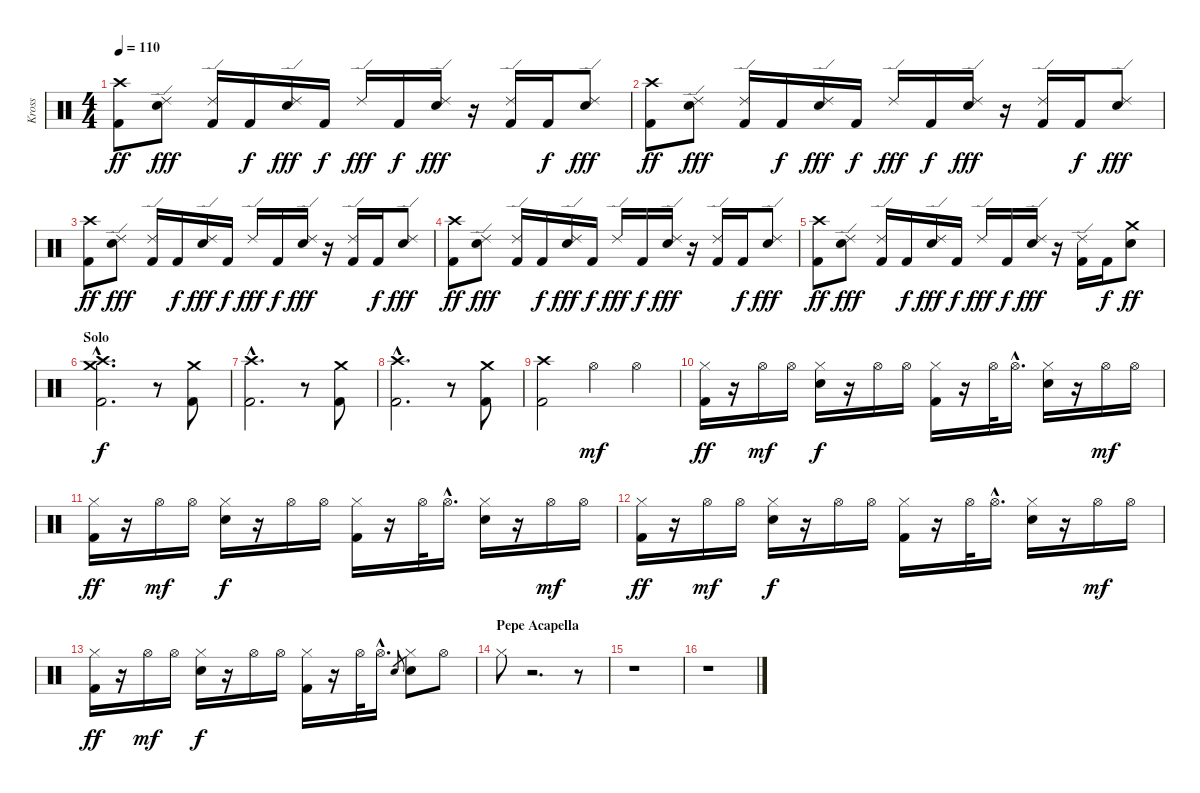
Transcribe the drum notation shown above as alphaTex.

\track ("Kross" "Kross") {instrument percussion}
\staff {score}
\articulation defaults
\ts (4 4)
\tempo 110
\clef neutral
\ks c
("Crash high (hit)" "Kick (hit) 2").8{dy ff} ("Ride (edge) 2" "Electric Snare (hit)").8{dy fff} ("Ride (edge) 2" "Kick (hit) 2").16 "Kick (hit) 2".16{dy f} ("Ride (edge) 2" "Electric Snare (hit)").16{dy fff} "Kick (hit) 2".16{dy f} "Ride (edge) 2".16{dy fff} "Kick (hit) 2".16{dy f} ("Ride (edge) 2" "Electric Snare (hit)").16{dy fff} r.16 ("Ride (edge) 2" "Kick (hit) 2").16 "Kick (hit) 2".16{dy f} ("Ride (edge) 2" "Electric Snare (hit)").8{dy fff} |
("Crash high (hit)" "Kick (hit) 2").8{dy ff} ("Ride (edge) 2" "Electric Snare (hit)").8{dy fff} ("Ride (edge) 2" "Kick (hit) 2").16 "Kick (hit) 2".16{dy f} ("Ride (edge) 2" "Electric Snare (hit)").16{dy fff} "Kick (hit) 2".16{dy f} "Ride (edge) 2".16{dy fff} "Kick (hit) 2".16{dy f} ("Ride (edge) 2" "Electric Snare (hit)").16{dy fff} r.16 ("Ride (edge) 2" "Kick (hit) 2").16 "Kick (hit) 2".16{dy f} ("Ride (edge) 2" "Electric Snare (hit)").8{dy fff} |
("Crash high (hit)" "Kick (hit) 2").8{dy ff} ("Ride (edge) 2" "Electric Snare (hit)").8{dy fff} ("Ride (edge) 2" "Kick (hit) 2").16 "Kick (hit) 2".16{dy f} ("Ride (edge) 2" "Electric Snare (hit)").16{dy fff} "Kick (hit) 2".16{dy f} "Ride (edge) 2".16{dy fff} "Kick (hit) 2".16{dy f} ("Ride (edge) 2" "Electric Snare (hit)").16{dy fff} r.16 ("Ride (edge) 2" "Kick (hit) 2").16 "Kick (hit) 2".16{dy f} ("Ride (edge) 2" "Electric Snare (hit)").8{dy fff} |
("Crash high (hit)" "Kick (hit) 2").8{dy ff} ("Ride (edge) 2" "Electric Snare (hit)").8{dy fff} ("Ride (edge) 2" "Kick (hit) 2").16 "Kick (hit) 2".16{dy f} ("Ride (edge) 2" "Electric Snare (hit)").16{dy fff} "Kick (hit) 2".16{dy f} "Ride (edge) 2".16{dy fff} "Kick (hit) 2".16{dy f} ("Ride (edge) 2" "Electric Snare (hit)").16{dy fff} r.16 ("Ride (edge) 2" "Kick (hit) 2").16 "Kick (hit) 2".16{dy f} ("Ride (edge) 2" "Electric Snare (hit)").8{dy fff} |
("Crash high (hit)" "Kick (hit) 2").8{dy ff} ("Ride (edge) 2" "Electric Snare (hit)").8{dy fff} ("Ride (edge) 2" "Kick (hit) 2").16 "Kick (hit) 2".16{dy f} ("Ride (edge) 2" "Electric Snare (hit)").16{dy fff} "Kick (hit) 2".16{dy f} "Ride (edge) 2".16{dy fff} "Kick (hit) 2".16{dy f} ("Ride (edge) 2" "Electric Snare (hit)").16{dy fff} r.16 ("Ride (edge) 2" "Kick (hit) 2").16 "Kick (hit) 2".16{dy f} ("Crash medium (hit)" "Electric Snare (hit)").8{dy ff} |
\section ("" "Solo ")
("Crash high (hit)"{hac} "Crash medium (hit)"{hac} "Kick (hit) 2"{hac}).2{d dy f} r.8 ("Crash medium (hit)" "Kick (hit) 2").8 |
("Crash high (hit)"{hac} "Kick (hit) 2"{hac}).2{d} r.8 ("Crash medium (hit)" "Kick (hit) 2").8 |
("Crash high (hit)"{hac} "Kick (hit) 2"{hac}).2{d} r.8 ("Crash medium (hit)" "Kick (hit) 2").8 |
("Crash high (hit)" "Kick (hit) 2").2 "Hi-Hat (open)".4{dy mf} "Hi-Hat (open)".4 |
("Hi-Hat (closed)" "Kick (hit) 2").16{dy ff} r.16 "Hi-Hat (open)".16{dy mf} "Hi-Hat (open)".16 ("Hi-Hat (closed)" "Electric Snare (hit)").16{dy f} r.16 "Hi-Hat (open)".16 "Hi-Hat (open)".16 ("Hi-Hat (closed)" "Kick (hit) 2").16 r.16 "Hi-Hat (open)".32 "Hi-Hat (open)"{hac}.16{d} ("Hi-Hat (closed)" "Electric Snare (hit)").16 r.16 "Hi-Hat (open)".16{dy mf} "Hi-Hat (open)".16 |
("Hi-Hat (closed)" "Kick (hit) 2").16{dy ff} r.16 "Hi-Hat (open)".16{dy mf} "Hi-Hat (open)".16 ("Hi-Hat (closed)" "Electric Snare (hit)").16{dy f} r.16 "Hi-Hat (open)".16 "Hi-Hat (open)".16 ("Hi-Hat (closed)" "Kick (hit) 2").16 r.16 "Hi-Hat (open)".32 "Hi-Hat (open)"{hac}.16{d} ("Hi-Hat (closed)" "Electric Snare (hit)").16 r.16 "Hi-Hat (open)".16{dy mf} "Hi-Hat (open)".16 |
("Hi-Hat (closed)" "Kick (hit) 2").16{dy ff} r.16 "Hi-Hat (open)".16{dy mf} "Hi-Hat (open)".16 ("Hi-Hat (closed)" "Electric Snare (hit)").16{dy f} r.16 "Hi-Hat (open)".16 "Hi-Hat (open)".16 ("Hi-Hat (closed)" "Kick (hit) 2").16 r.16 "Hi-Hat (open)".32 "Hi-Hat (open)"{hac}.16{d} ("Hi-Hat (closed)" "Electric Snare (hit)").16 r.16 "Hi-Hat (open)".16{dy mf} "Hi-Hat (open)".16 |
("Hi-Hat (closed)" "Kick (hit) 2").16{dy ff} r.16 "Hi-Hat (open)".16{dy mf} "Hi-Hat (open)".16 ("Hi-Hat (closed)" "Electric Snare (hit)").16{dy f} r.16 "Hi-Hat (open)".16 "Hi-Hat (open)".16 ("Hi-Hat (closed)" "Kick (hit) 2").16 r.16 "Hi-Hat (open)".32 "Hi-Hat (open)"{hac}.16{d} "Electric Snare (hit)".8{gr} ("Hi-Hat (closed)" "Electric Snare (hit)").8 "Hi-Hat (open)".8 |
\section ("" "Pepe Acapella")
"Hi-Hat (closed)".8 r.2{d} r.8 |
r.1 |
r.1
